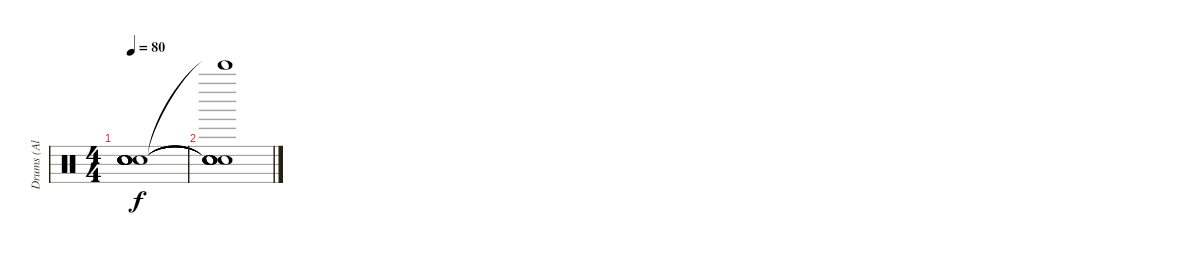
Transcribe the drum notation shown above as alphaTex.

\track ("Drums (Al Sobrante)" "Drums (Al ") {instrument percussion}
\staff {score}
\articulation defaults
\ts (4 4)
\tempo 80
\clef neutral
\ks c
("Snare (hit)"{t} "Snare (hit)"{t} "Snare (hit)"{t} "Snare (hit)"{t} "Snare (hit)"{t} "Snare (hit)"{t}).1{dy f} |
("Snare (hit)"{t} "Snare (hit)"{t} "Snare (hit)"{t} "Snare (hit)"{t} "Snare (hit)"{t} "Bell Tree (hit)"{t}).1
